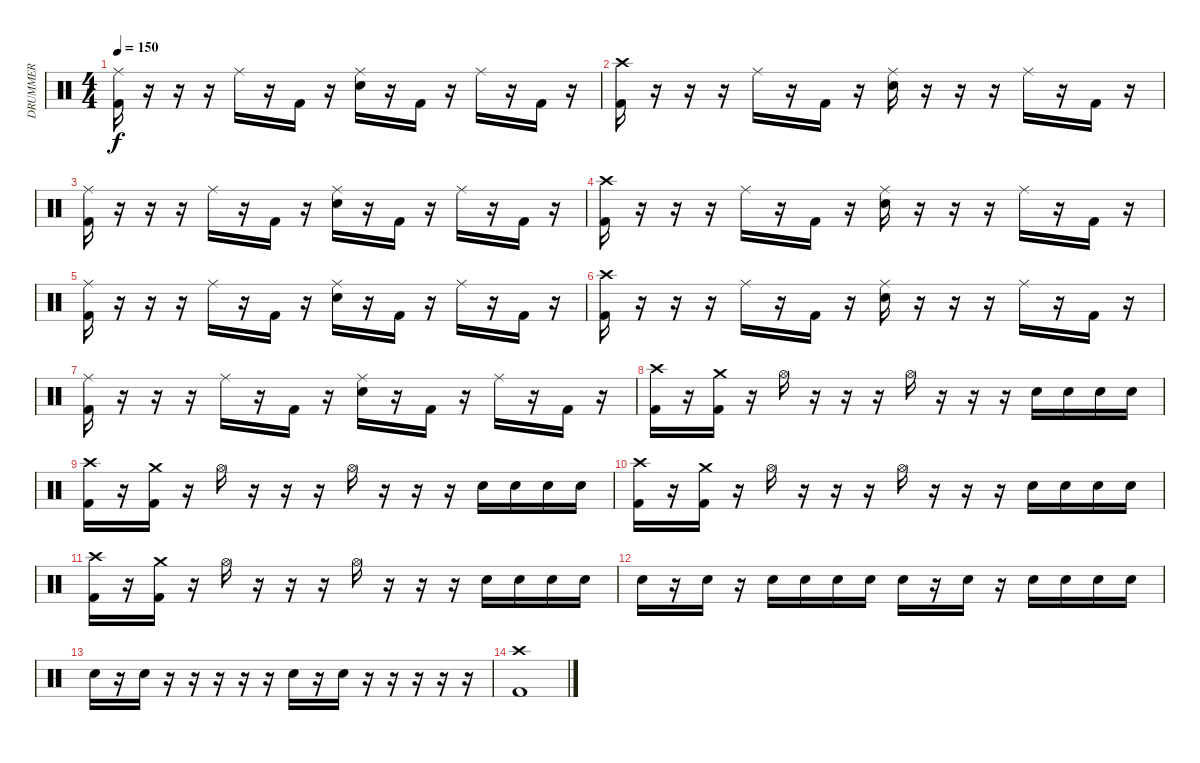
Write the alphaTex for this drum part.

\track ("DRUMMER" "DRUMMER") {instrument percussion}
\staff {score}
\articulation defaults
\ts (4 4)
\tempo 150
\clef neutral
\ks c
("Ride (middle)" "Kick (hit) 2").16{dy f} r.16 r.16 r.16 "Ride (middle)".16 r.16 "Kick (hit) 2".16 r.16 ("Ride (middle)" "Electric Snare (hit)").16 r.16 "Kick (hit) 2".16 r.16 "Ride (middle)".16 r.16 "Kick (hit) 2".16 r.16 |
("Crash high (hit)" "Kick (hit) 2").16 r.16 r.16 r.16 "Ride (middle)".16 r.16 "Kick (hit) 2".16 r.16 ("Ride (middle)" "Electric Snare (hit)").16 r.16 r.16 r.16 "Ride (middle)".16 r.16 "Kick (hit) 2".16 r.16 |
("Ride (middle)" "Kick (hit) 2").16 r.16 r.16 r.16 "Ride (middle)".16 r.16 "Kick (hit) 2".16 r.16 ("Ride (middle)" "Electric Snare (hit)").16 r.16 "Kick (hit) 2".16 r.16 "Ride (middle)".16 r.16 "Kick (hit) 2".16 r.16 |
("Crash high (hit)" "Kick (hit) 2").16 r.16 r.16 r.16 "Ride (middle)".16 r.16 "Kick (hit) 2".16 r.16 ("Ride (middle)" "Electric Snare (hit)").16 r.16 r.16 r.16 "Ride (middle)".16 r.16 "Kick (hit) 2".16 r.16 |
("Ride (middle)" "Kick (hit) 2").16 r.16 r.16 r.16 "Ride (middle)".16 r.16 "Kick (hit) 2".16 r.16 ("Ride (middle)" "Electric Snare (hit)").16 r.16 "Kick (hit) 2".16 r.16 "Ride (middle)".16 r.16 "Kick (hit) 2".16 r.16 |
("Crash high (hit)" "Kick (hit) 2").16 r.16 r.16 r.16 "Ride (middle)".16 r.16 "Kick (hit) 2".16 r.16 ("Ride (middle)" "Electric Snare (hit)").16 r.16 r.16 r.16 "Ride (middle)".16 r.16 "Kick (hit) 2".16 r.16 |
("Ride (middle)" "Kick (hit) 2").16 r.16 r.16 r.16 "Ride (middle)".16 r.16 "Kick (hit) 2".16 r.16 ("Ride (middle)" "Electric Snare (hit)").16 r.16 "Kick (hit) 2".16 r.16 "Ride (middle)".16 r.16 "Kick (hit) 2".16 r.16 |
("Crash high (hit)" "Kick (hit) 2").16 r.16 ("Crash medium (hit)" "Kick (hit) 2").16 r.16 "Hi-Hat (open)".16 r.16 r.16 r.16 "Hi-Hat (open)".16 r.16 r.16 r.16 "Electric Snare (hit)".16 "Electric Snare (hit)".16 "Electric Snare (hit)".16 "Electric Snare (hit)".16 |
("Crash high (hit)" "Kick (hit) 2").16 r.16 ("Crash medium (hit)" "Kick (hit) 2").16 r.16 "Hi-Hat (open)".16 r.16 r.16 r.16 "Hi-Hat (open)".16 r.16 r.16 r.16 "Electric Snare (hit)".16 "Electric Snare (hit)".16 "Electric Snare (hit)".16 "Electric Snare (hit)".16 |
("Crash high (hit)" "Kick (hit) 2").16 r.16 ("Crash medium (hit)" "Kick (hit) 2").16 r.16 "Hi-Hat (open)".16 r.16 r.16 r.16 "Hi-Hat (open)".16 r.16 r.16 r.16 "Electric Snare (hit)".16 "Electric Snare (hit)".16 "Electric Snare (hit)".16 "Electric Snare (hit)".16 |
("Crash high (hit)" "Kick (hit) 2").16 r.16 ("Crash medium (hit)" "Kick (hit) 2").16 r.16 "Hi-Hat (open)".16 r.16 r.16 r.16 "Hi-Hat (open)".16 r.16 r.16 r.16 "Electric Snare (hit)".16 "Electric Snare (hit)".16 "Electric Snare (hit)".16 "Electric Snare (hit)".16 |
"Electric Snare (hit)".16 r.16 "Electric Snare (hit)".16 r.16 "Electric Snare (hit)".16 "Electric Snare (hit)".16 "Electric Snare (hit)".16 "Electric Snare (hit)".16 "Electric Snare (hit)".16 r.16 "Electric Snare (hit)".16 r.16 "Electric Snare (hit)".16 "Electric Snare (hit)".16 "Electric Snare (hit)".16 "Electric Snare (hit)".16 |
"Electric Snare (hit)".16 r.16 "Electric Snare (hit)".16 r.16 r.16 r.16 r.16 r.16 "Electric Snare (hit)".16 r.16 "Electric Snare (hit)".16 r.16 r.16 r.16 r.16 r.16 |
("Crash high (hit)" "Kick (hit) 2").1
